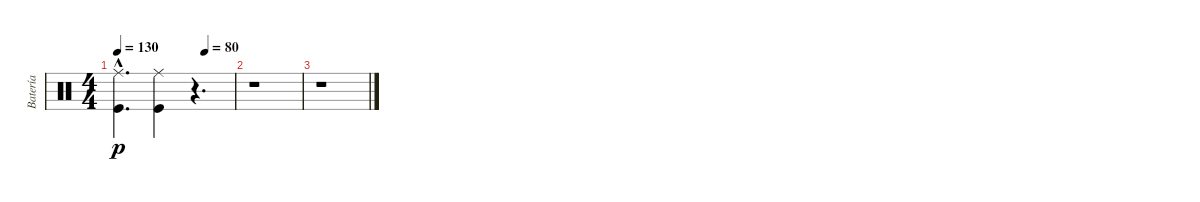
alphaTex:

\track ("Batería" "Batería") {instrument percussion}
\staff {score}
\articulation defaults
\ts (4 4)
\tempo 130
\tempo (80 0.75)
\clef neutral
\ks c
("Kick (hit)"{hac} "Ride (middle)"{hac}).4{d dy p} ("Kick (hit)" "Ride (middle)").4 r.4{d} |
r.1 |
r.1
